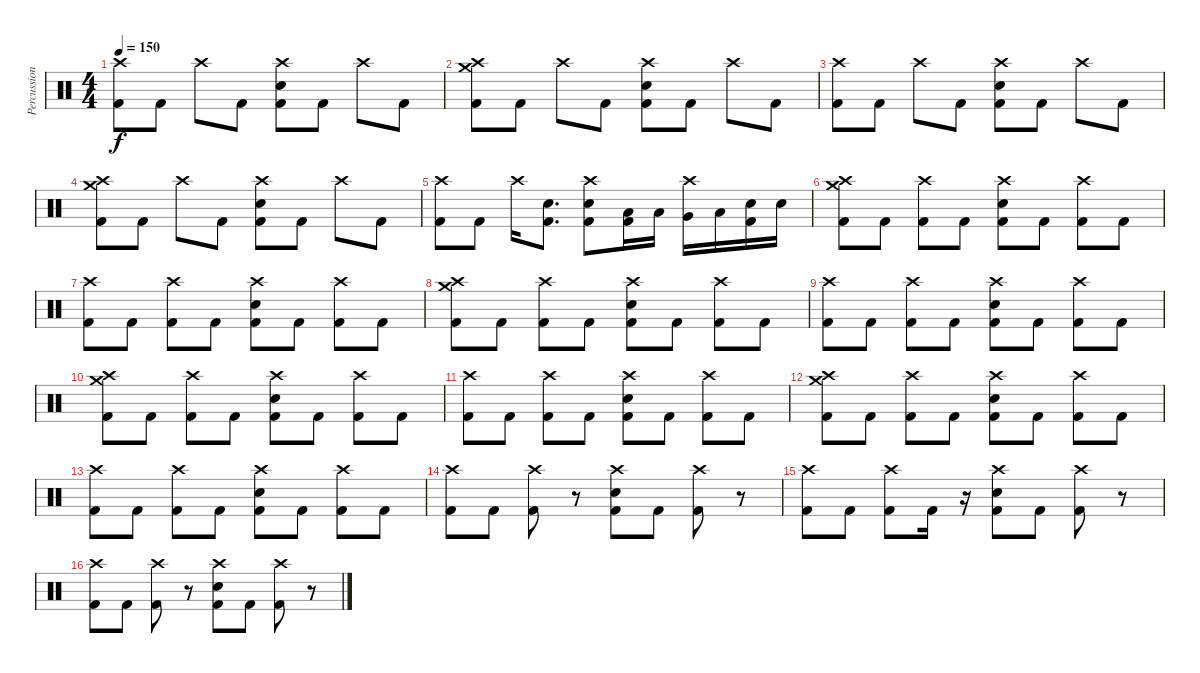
\track ("Percussion" "Percussion") {instrument percussion}
\staff {score}
\articulation defaults
\ts (4 4)
\tempo 150
\clef neutral
\ks c
("Crash high (hit)" "Kick (hit) 2").8{dy f} "Kick (hit) 2".8 "Crash high (hit)".8 "Kick (hit) 2".8 ("Crash high (hit)" "Snare (hit) 2" "Kick (hit) 2").8 "Kick (hit) 2".8 "Crash high (hit)".8 "Kick (hit) 2".8 |
("Crash medium (hit)" "Crash high (hit)" "Kick (hit) 2").8 "Kick (hit) 2".8 "Crash high (hit)".8 "Kick (hit) 2".8 ("Crash high (hit)" "Snare (hit) 2" "Kick (hit) 2").8 "Kick (hit) 2".8 "Crash high (hit)".8 "Kick (hit) 2".8 |
("Crash high (hit)" "Kick (hit) 2").8 "Kick (hit) 2".8 "Crash high (hit)".8 "Kick (hit) 2".8 ("Crash high (hit)" "Snare (hit) 2" "Kick (hit) 2").8 "Kick (hit) 2".8 "Crash high (hit)".8 "Kick (hit) 2".8 |
("Crash medium (hit)" "Crash high (hit)" "Kick (hit) 2").8 "Kick (hit) 2".8 "Crash high (hit)".8 "Kick (hit) 2".8 ("Crash high (hit)" "Snare (hit) 2" "Kick (hit) 2").8 "Kick (hit) 2".8 "Crash high (hit)".8 "Kick (hit) 2".8 |
("Crash high (hit)" "Kick (hit) 2").8 "Kick (hit) 2".8 "Crash high (hit)".16 ("Snare (hit) 2" "Kick (hit) 2").8{d} ("Crash high (hit)" "Snare (hit) 2" "Kick (hit) 2").8 ("Low Tom (hit)" "Kick (hit) 2").16 "Low Tom (hit)".16 ("Crash high (hit)" "Very Low Tom (hit)").16 "Low Floor Tom (hit)".16 ("Snare (hit) 2" "Kick (hit) 2").16 "Snare (hit) 2".16 |
("Crash medium (hit)" "Crash high (hit)" "Kick (hit) 2").8 "Kick (hit) 2".8 ("Crash high (hit)" "Kick (hit) 2").8 "Kick (hit) 2".8 ("Crash high (hit)" "Snare (hit) 2" "Kick (hit) 2").8 "Kick (hit) 2".8 ("Crash high (hit)" "Kick (hit) 2").8 "Kick (hit) 2".8 |
("Crash high (hit)" "Kick (hit) 2").8 "Kick (hit) 2".8 ("Crash high (hit)" "Kick (hit) 2").8 "Kick (hit) 2".8 ("Crash high (hit)" "Snare (hit) 2" "Kick (hit) 2").8 "Kick (hit) 2".8 ("Crash high (hit)" "Kick (hit) 2").8 "Kick (hit) 2".8 |
("Crash medium (hit)" "Crash high (hit)" "Kick (hit) 2").8 "Kick (hit) 2".8 ("Crash high (hit)" "Kick (hit) 2").8 "Kick (hit) 2".8 ("Crash high (hit)" "Snare (hit) 2" "Kick (hit) 2").8 "Kick (hit) 2".8 ("Crash high (hit)" "Kick (hit) 2").8 "Kick (hit) 2".8 |
("Crash high (hit)" "Kick (hit) 2").8 "Kick (hit) 2".8 ("Crash high (hit)" "Kick (hit) 2").8 "Kick (hit) 2".8 ("Crash high (hit)" "Snare (hit) 2" "Kick (hit) 2").8 "Kick (hit) 2".8 ("Crash high (hit)" "Kick (hit) 2").8 "Kick (hit) 2".8 |
("Crash medium (hit)" "Crash high (hit)" "Kick (hit) 2").8 "Kick (hit) 2".8 ("Crash high (hit)" "Kick (hit) 2").8 "Kick (hit) 2".8 ("Crash high (hit)" "Snare (hit) 2" "Kick (hit) 2").8 "Kick (hit) 2".8 ("Crash high (hit)" "Kick (hit) 2").8 "Kick (hit) 2".8 |
("Crash high (hit)" "Kick (hit) 2").8 "Kick (hit) 2".8 ("Crash high (hit)" "Kick (hit) 2").8 "Kick (hit) 2".8 ("Crash high (hit)" "Snare (hit) 2" "Kick (hit) 2").8 "Kick (hit) 2".8 ("Crash high (hit)" "Kick (hit) 2").8 "Kick (hit) 2".8 |
("Crash medium (hit)" "Crash high (hit)" "Kick (hit) 2").8 "Kick (hit) 2".8 ("Crash high (hit)" "Kick (hit) 2").8 "Kick (hit) 2".8 ("Crash high (hit)" "Snare (hit) 2" "Kick (hit) 2").8 "Kick (hit) 2".8 ("Crash high (hit)" "Kick (hit) 2").8 "Kick (hit) 2".8 |
("Crash high (hit)" "Kick (hit) 2").8 "Kick (hit) 2".8 ("Crash high (hit)" "Kick (hit) 2").8 "Kick (hit) 2".8 ("Crash high (hit)" "Snare (hit) 2" "Kick (hit) 2").8 "Kick (hit) 2".8 ("Crash high (hit)" "Kick (hit) 2").8 "Kick (hit) 2".8 |
("Crash high (hit)" "Kick (hit) 2").8 "Kick (hit) 2".8 ("Crash high (hit)" "Kick (hit) 2").8 r.8 ("Crash high (hit)" "Snare (hit) 2" "Kick (hit) 2").8 "Kick (hit) 2".8 ("Crash high (hit)" "Kick (hit) 2").8 r.8 |
("Crash high (hit)" "Kick (hit) 2").8 "Kick (hit) 2".8 ("Crash high (hit)" "Kick (hit) 2").8 "Kick (hit) 2".16 r.16 ("Crash high (hit)" "Snare (hit) 2" "Kick (hit) 2").8 "Kick (hit) 2".8 ("Crash high (hit)" "Kick (hit) 2").8 r.8 |
("Crash high (hit)" "Kick (hit) 2").8 "Kick (hit) 2".8 ("Crash high (hit)" "Kick (hit) 2").8 r.8 ("Crash high (hit)" "Snare (hit) 2" "Kick (hit) 2").8 "Kick (hit) 2".8 ("Crash high (hit)" "Kick (hit) 2").8 r.8
